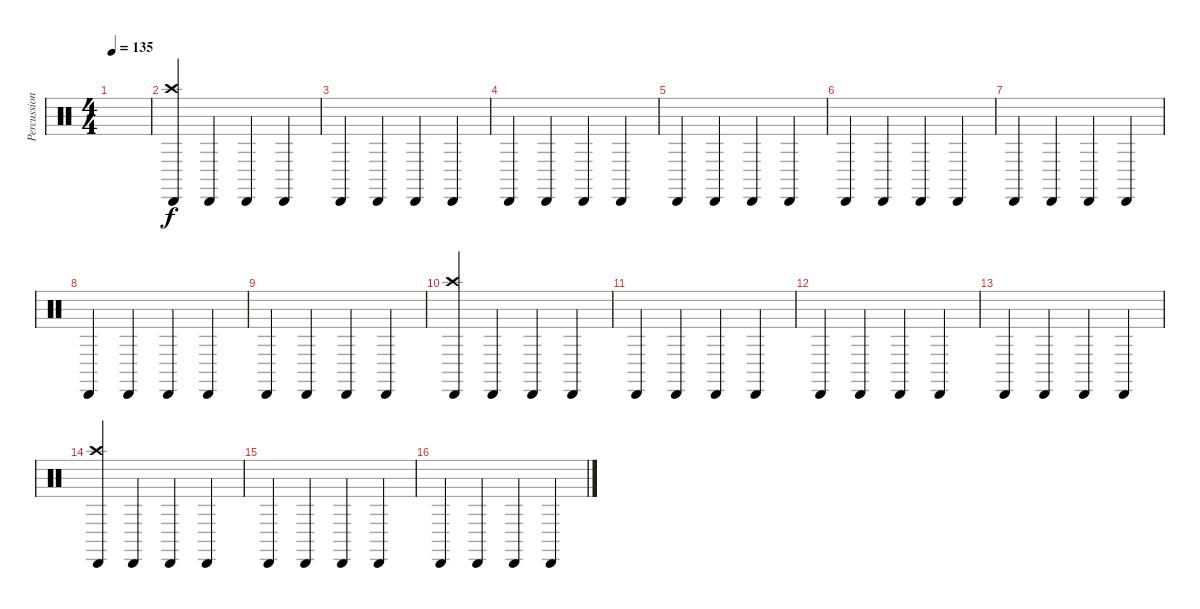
\track ("Percussion2" "Percussion") {instrument percussion}
\staff {score}
\articulation defaults
\ts (4 4)
\tempo 135
\clef neutral
\ks c
|
("Crash high (hit)" "Cabasa (hit)").4 "Cabasa (hit)".4 "Cabasa (hit)".4 "Cabasa (hit)".4 |
"Cabasa (hit)".4 "Cabasa (hit)".4 "Cabasa (hit)".4 "Cabasa (hit)".4 |
"Cabasa (hit)".4 "Cabasa (hit)".4 "Cabasa (hit)".4 "Cabasa (hit)".4 |
"Cabasa (hit)".4 "Cabasa (hit)".4 "Cabasa (hit)".4 "Cabasa (hit)".4 |
"Cabasa (hit)".4 "Cabasa (hit)".4 "Cabasa (hit)".4 "Cabasa (hit)".4 |
"Cabasa (hit)".4 "Cabasa (hit)".4 "Cabasa (hit)".4 "Cabasa (hit)".4 |
"Cabasa (hit)".4 "Cabasa (hit)".4 "Cabasa (hit)".4 "Cabasa (hit)".4 |
"Cabasa (hit)".4 "Cabasa (hit)".4 "Cabasa (hit)".4 "Cabasa (hit)".4 |
("Crash high (hit)" "Cabasa (hit)").4 "Cabasa (hit)".4 "Cabasa (hit)".4 "Cabasa (hit)".4 |
"Cabasa (hit)".4 "Cabasa (hit)".4 "Cabasa (hit)".4 "Cabasa (hit)".4 |
"Cabasa (hit)".4 "Cabasa (hit)".4 "Cabasa (hit)".4 "Cabasa (hit)".4 |
"Cabasa (hit)".4 "Cabasa (hit)".4 "Cabasa (hit)".4 "Cabasa (hit)".4 |
("Crash high (hit)" "Cabasa (hit)").4 "Cabasa (hit)".4 "Cabasa (hit)".4 "Cabasa (hit)".4 |
"Cabasa (hit)".4 "Cabasa (hit)".4 "Cabasa (hit)".4 "Cabasa (hit)".4 |
"Cabasa (hit)".4 "Cabasa (hit)".4 "Cabasa (hit)".4 "Cabasa (hit)".4
